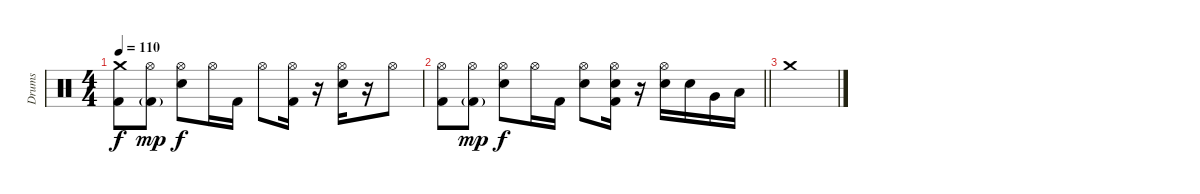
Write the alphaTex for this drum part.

\track ("Drums" "Drums") {instrument percussion}
\staff {score}
\articulation defaults
\ts (4 4)
\tempo 110
\clef neutral
\ks c
("Crash medium (hit)" "Kick (hit) 2").8{dy f} ("Hi-Hat (open)" "Kick (hit) 2"{g}).8{dy mp} ("Hi-Hat (open)" "Electric Snare (hit)").8{dy f} "Hi-Hat (open)".16 "Kick (hit) 2".16 "Hi-Hat (open)".8 ("Hi-Hat (open)" "Kick (hit) 2").16 r.16 ("Hi-Hat (open)" "Electric Snare (hit)").16 r.16 "Hi-Hat (open)".8 |
\barLineRight lightlight
("Hi-Hat (open)" "Kick (hit) 2").8 ("Hi-Hat (open)" "Kick (hit) 2"{g}).8{dy mp} ("Hi-Hat (open)" "Electric Snare (hit)").8{dy f} "Hi-Hat (open)".16 "Kick (hit) 2".16 ("Hi-Hat (open)" "Electric Snare (hit)").8 ("Hi-Hat (open)" "Electric Snare (hit)" "Kick (hit) 2").16 r.16 ("Hi-Hat (open)" "Electric Snare (hit)").16 "Electric Snare (hit)".16 "Very Low Tom (hit)".16 "Low Tom (hit)".16 |
"Crash medium (hit)".1
